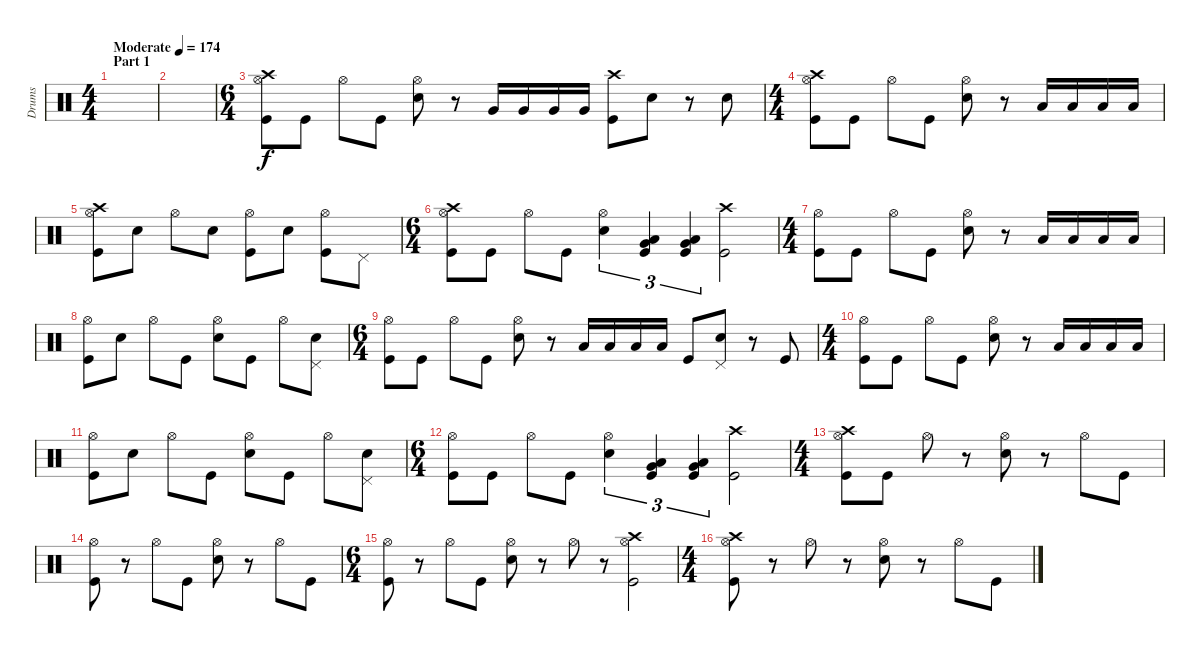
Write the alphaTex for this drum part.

\track ("Drums" "Drums") {instrument percussion}
\staff {score}
\articulation defaults
\ts (4 4)
\section ("" "Part 1")
\tempo (174 "Moderate")
\clef neutral
\ks c
|
|
\ts (6 4)
("Crash high (hit)" "Hi-Hat (open)" "Kick (hit)").8 "Kick (hit)".8 "Hi-Hat (open)".8 "Kick (hit)".8 ("Hi-Hat (open)" "Snare (hit) 2").8 r.8 "Very Low Tom (hit)".16 "Very Low Tom (hit)".16 "Very Low Tom (hit)".16 "Very Low Tom (hit)".16 ("Crash high (hit)" "Kick (hit)").8 "Snare (hit) 2".8 r.8 "Snare (hit) 2".8 |
\ts (4 4)
("Crash high (hit)" "Hi-Hat (open)" "Kick (hit)").8 "Kick (hit)".8 "Hi-Hat (open)".8 "Kick (hit)".8 ("Hi-Hat (open)" "Snare (hit) 2").8 r.8 "Low Floor Tom (hit)".16 "Low Floor Tom (hit)".16 "Low Floor Tom (hit)".16 "Low Floor Tom (hit)".16 |
("Crash high (hit)" "Hi-Hat (open)" "Kick (hit)").8 "Snare (hit) 2".8 "Hi-Hat (open)".8 "Snare (hit) 2".8 ("Hi-Hat (open)" "Kick (hit)").8 "Snare (hit) 2".8 ("Hi-Hat (open)" "Kick (hit)").8 "Pedal Hi-Hat (hit)".8 |
\ts (6 4)
("Crash high (hit)" "Hi-Hat (open)" "Kick (hit)").8 "Kick (hit)".8 "Hi-Hat (open)".8 "Kick (hit)".8 ("Hi-Hat (open)" "Snare (hit) 2").4{tu (3 2)} ("Very Low Tom (hit)" "Low Floor Tom (hit)" "Kick (hit)").4{tu (3 2)} ("Very Low Tom (hit)" "Low Floor Tom (hit)" "Kick (hit)").4{tu (3 2)} ("Crash high (hit)" "Kick (hit)").2 |
\ts (4 4)
("Hi-Hat (open)" "Kick (hit)").8 "Kick (hit)".8 "Hi-Hat (open)".8 "Kick (hit)".8 ("Hi-Hat (open)" "Snare (hit) 2").8 r.8 "Low Floor Tom (hit)".16 "Low Floor Tom (hit)".16 "Low Floor Tom (hit)".16 "Low Floor Tom (hit)".16 |
("Hi-Hat (open)" "Kick (hit)").8 "Snare (hit) 2".8 "Hi-Hat (open)".8 "Kick (hit)".8 ("Hi-Hat (open)" "Snare (hit) 2").8 "Kick (hit)".8 "Hi-Hat (open)".8 ("Pedal Hi-Hat (hit)" "Snare (hit) 2").8 |
\ts (6 4)
("Hi-Hat (open)" "Kick (hit)").8 "Kick (hit)".8 "Hi-Hat (open)".8 "Kick (hit)".8 ("Hi-Hat (open)" "Snare (hit) 2").8 r.8 "Low Floor Tom (hit)".16 "Low Floor Tom (hit)".16 "Low Floor Tom (hit)".16 "Low Floor Tom (hit)".16 "Kick (hit)".8 ("Pedal Hi-Hat (hit)" "Snare (hit) 2").8 r.8 "Kick (hit)".8 |
\ts (4 4)
("Hi-Hat (open)" "Kick (hit)").8 "Kick (hit)".8 "Hi-Hat (open)".8 "Kick (hit)".8 ("Hi-Hat (open)" "Snare (hit) 2").8 r.8 "Low Floor Tom (hit)".16 "Low Floor Tom (hit)".16 "Low Floor Tom (hit)".16 "Low Floor Tom (hit)".16 |
("Hi-Hat (open)" "Kick (hit)").8 "Snare (hit) 2".8 "Hi-Hat (open)".8 "Kick (hit)".8 ("Hi-Hat (open)" "Snare (hit) 2").8 "Kick (hit)".8 "Hi-Hat (open)".8 ("Pedal Hi-Hat (hit)" "Snare (hit) 2").8 |
\ts (6 4)
("Hi-Hat (open)" "Kick (hit)").8 "Kick (hit)".8 "Hi-Hat (open)".8 "Kick (hit)".8 ("Hi-Hat (open)" "Snare (hit) 2").4{tu (3 2)} ("Very Low Tom (hit)" "Low Floor Tom (hit)" "Kick (hit)").4{tu (3 2)} ("Very Low Tom (hit)" "Low Floor Tom (hit)" "Kick (hit)").4{tu (3 2)} ("Crash high (hit)" "Kick (hit)").2 |
\ts (4 4)
("Crash high (hit)" "Hi-Hat (open)" "Kick (hit)").8 "Kick (hit)".8 "Hi-Hat (open)".8 r.8 ("Hi-Hat (open)" "Snare (hit) 2").8 r.8 "Hi-Hat (open)".8 "Kick (hit)".8 |
("Hi-Hat (open)" "Kick (hit)").8 r.8 "Hi-Hat (open)".8 "Kick (hit)".8 ("Hi-Hat (open)" "Snare (hit) 2").8 r.8 "Hi-Hat (open)".8 "Kick (hit)".8 |
\ts (6 4)
("Hi-Hat (open)" "Kick (hit)").8 r.8 "Hi-Hat (open)".8 "Kick (hit)".8 ("Hi-Hat (open)" "Snare (hit) 2").8 r.8 "Hi-Hat (open)".8 r.8 ("Crash high (hit)" "Hi-Hat (open)" "Kick (hit)").2 |
\ts (4 4)
("Crash high (hit)" "Hi-Hat (open)" "Kick (hit)").8 r.8 "Hi-Hat (open)".8 r.8 ("Hi-Hat (open)" "Snare (hit) 2").8 r.8 "Hi-Hat (open)".8 "Kick (hit)".8
